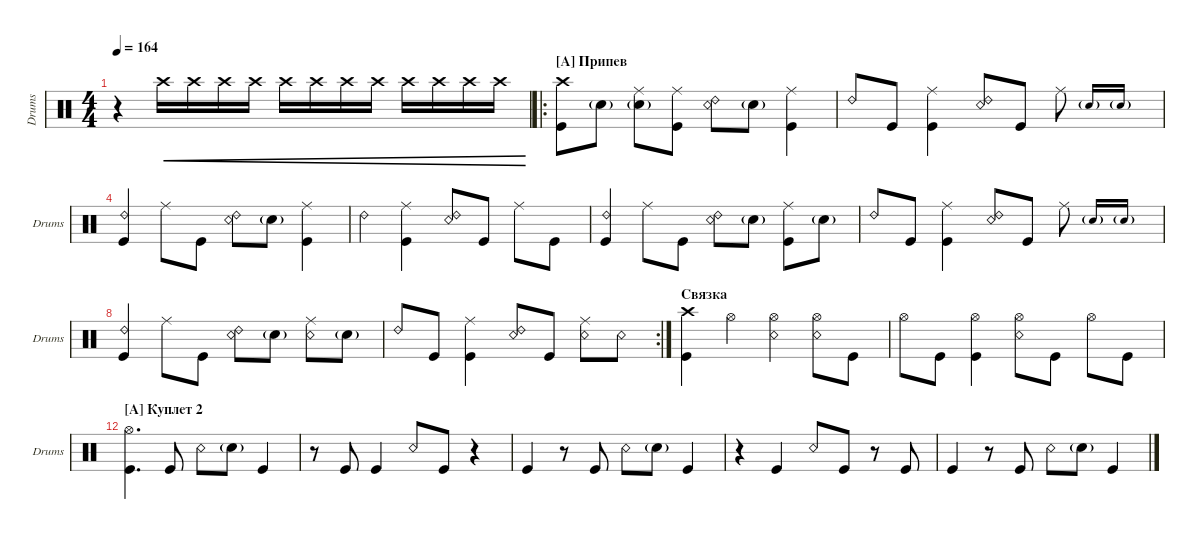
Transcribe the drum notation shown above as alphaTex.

\defaultSystemsLayout 4
\hideDynamics
\bracketExtendMode groupsimilarinstruments
\singleTrackTrackNamePolicy allsystems
\multiTrackTrackNamePolicy allsystems
\otherSystemsTrackNameOrientation horizontal
\defaultBarNumberDisplay FirstOfSystem
\track ("Drumkit" "Drums") {instrument percussion}
\staff {score}
\articulation defaults
\ts (4 4)
\tempo 164
\clef neutral
\ks c
r.4{dy f} "Crash high (hit)".16{cre} "Crash high (hit)".16{cre} "Crash high (hit)".16{cre} "Crash high (hit)".16{cre} "Crash high (hit)".16{cre} "Crash high (hit)".16{cre} "Crash high (hit)".16{cre} "Crash high (hit)".16{cre} "Crash high (hit)".16{cre} "Crash high (hit)".16{cre} "Crash high (hit)".16{cre} "Crash high (hit)".16{cre} |
\ro
\section ("A" "Припев")
("Crash high (hit)" "Kick (hit)").8 "Snare (hit) 2"{g}.8 ("Snare (hit) 2"{g} "Ride (middle)").8 ("Kick (hit)" "Ride (middle)").8 ("Snare (rim shot)" "Ride (bell) 2").8 "Snare (hit) 2"{g}.8 ("Kick (hit)" "Ride (middle)").4 |
"Ride (bell) 2".8 "Kick (hit)".8 ("Kick (hit)" "Ride (middle)").4 ("Snare (rim shot)" "Ride (bell) 2").8 "Kick (hit)".8 "Ride (middle)".8 "Snare (hit) 2"{g}.16{gr onbeat} "Snare (hit) 2"{g}.16{gr onbeat} |
("Kick (hit)" "Ride (bell) 2").4 "Ride (middle)".8 "Kick (hit)".8 ("Snare (rim shot)" "Ride (bell) 2").8 "Snare (hit) 2"{g}.8 ("Kick (hit)" "Ride (middle)").4 |
"Ride (bell) 2".4 ("Kick (hit)" "Ride (middle)").4 ("Snare (rim shot)" "Ride (bell) 2").8 "Kick (hit)".8 "Ride (middle)".8 "Kick (hit)".8 |
("Kick (hit)" "Ride (bell) 2").4 "Ride (middle)".8 "Kick (hit)".8 ("Snare (rim shot)" "Ride (bell) 2").8 "Snare (hit) 2"{g}.8 ("Kick (hit)" "Ride (middle)").8 "Snare (hit) 2"{g}.8 |
"Ride (bell) 2".8 "Kick (hit)".8 ("Kick (hit)" "Ride (middle)").4 ("Snare (rim shot)" "Ride (bell) 2").8 "Kick (hit)".8 "Ride (middle)".8 "Snare (hit) 2"{g}.16{gr onbeat} "Snare (hit) 2"{g}.16{gr onbeat} |
("Kick (hit)" "Ride (bell) 2").4 "Ride (middle)".8 "Kick (hit)".8 ("Snare (rim shot)" "Ride (bell) 2").8 "Snare (hit) 2"{g}.8 ("Snare (rim shot)" "Ride (middle)").8 "Snare (hit) 2"{g}.8 |
\rc 2 "Ride (bell) 2".8 "Kick (hit)".8
("Kick (hit)" "Ride (middle)").4 ("Snare (rim shot)" "Ride (bell) 2").8 "Kick (hit)".8 ("Snare (rim shot)" "Ride (middle)").8 "Snare (rim shot)".8 |
\section ("" "Связка")
("Crash high (hit)" "Kick (hit)").4 "Hi-Hat (open)".4 ("Hi-Hat (open)" "Snare (rim shot)").4 ("Hi-Hat (open)" "Snare (rim shot)").8 "Kick (hit)".8 |
"Hi-Hat (open)".8 "Kick (hit)".8 ("Kick (hit)" "Hi-Hat (open)").4 ("Hi-Hat (open)" "Snare (rim shot)").8 "Kick (hit)".8 "Hi-Hat (open)".8 "Kick (hit)".8 |
\section ("A" "Куплет 2")
("Kick (hit)" "Hi-Hat (open)").4{d} "Kick (hit)".8 "Snare (rim shot)".8 "Snare (hit) 2"{g}.8 "Kick (hit)".4 |
r.8 "Kick (hit)".8 "Kick (hit)".4 "Snare (rim shot)".8 "Kick (hit)".8 r.4 |
"Kick (hit)".4 r.8 "Kick (hit)".8 "Snare (rim shot)".8 "Snare (hit) 2"{g}.8 "Kick (hit)".4 |
r.4 "Kick (hit)".4 "Snare (rim shot)".8 "Kick (hit)".8 r.8 "Kick (hit)".8 |
"Kick (hit)".4 r.8 "Kick (hit)".8 "Snare (rim shot)".8 "Snare (hit) 2"{g}.8 "Kick (hit)".4
